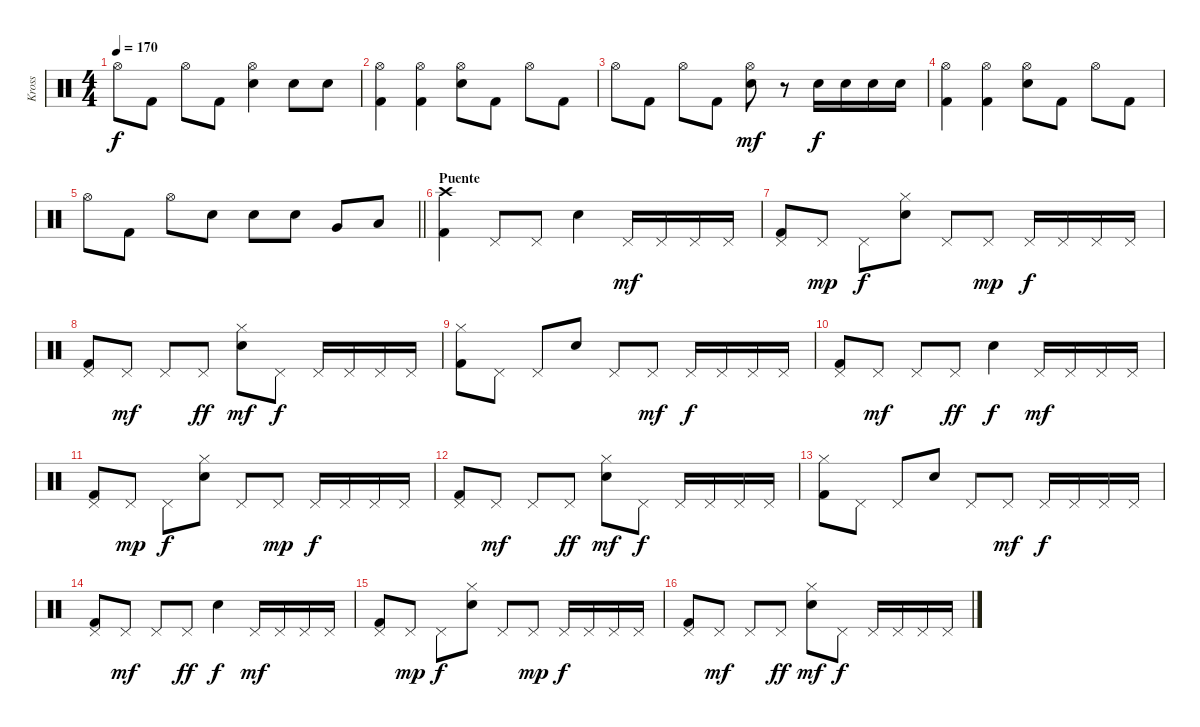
\track ("Kross" "Kross") {instrument percussion}
\staff {score}
\articulation defaults
\ts (4 4)
\tempo 170
\clef neutral
\ks c "Hi-Hat (open)".8{dy f} "Kick (hit) 2".8 "Hi-Hat (open)".8 "Kick (hit) 2".8
("Hi-Hat (open)" "Electric Snare (hit)").4 "Electric Snare (hit)".8 "Electric Snare (hit)".8 |
("Hi-Hat (open)" "Kick (hit) 2").4 ("Hi-Hat (open)" "Kick (hit) 2").4 ("Hi-Hat (open)" "Electric Snare (hit)").8 "Kick (hit) 2".8 "Hi-Hat (open)".8 "Kick (hit) 2".8 |
"Hi-Hat (open)".8 "Kick (hit) 2".8 "Hi-Hat (open)".8 "Kick (hit) 2".8 ("Hi-Hat (open)" "Electric Snare (hit)").8{dy mf} r.8 "Electric Snare (hit)".16{dy f} "Electric Snare (hit)".16 "Electric Snare (hit)".16 "Electric Snare (hit)".16 |
("Hi-Hat (open)" "Kick (hit) 2").4 ("Hi-Hat (open)" "Kick (hit) 2").4 ("Hi-Hat (open)" "Electric Snare (hit)").8 "Kick (hit) 2".8 "Hi-Hat (open)".8 "Kick (hit) 2".8 |
\barLineRight lightlight "Hi-Hat (open)".8 "Kick (hit) 2".8 "Hi-Hat (open)".8 "Electric Snare (hit)".8 "Electric Snare (hit)".8 "Electric Snare (hit)".8 "Very Low Tom (hit)".8 "Low Floor Tom (hit)".8
|
\section ("" "Puente")
("Crash high (hit)" "Kick (hit) 2").4 "Pedal Hi-Hat (hit)".8 "Pedal Hi-Hat (hit)".8 "Electric Snare (hit)".4 "Pedal Hi-Hat (hit)".16{dy mf} "Pedal Hi-Hat (hit)".16 "Pedal Hi-Hat (hit)".16 "Pedal Hi-Hat (hit)".16 |
("Pedal Hi-Hat (hit)" "Kick (hit) 2").8 "Pedal Hi-Hat (hit)".8{dy mp} "Pedal Hi-Hat (hit)".8{dy f} ("Hi-Hat (closed)" "Electric Snare (hit)").8 "Pedal Hi-Hat (hit)".8 "Pedal Hi-Hat (hit)".8{dy mp} "Pedal Hi-Hat (hit)".16{dy f} "Pedal Hi-Hat (hit)".16 "Pedal Hi-Hat (hit)".16 "Pedal Hi-Hat (hit)".16 |
("Pedal Hi-Hat (hit)" "Kick (hit) 2").8 "Pedal Hi-Hat (hit)".8{dy mf} "Pedal Hi-Hat (hit)".8 "Pedal Hi-Hat (hit)".8{dy ff} ("Hi-Hat (closed)" "Electric Snare (hit)").8{dy mf} "Pedal Hi-Hat (hit)".8{dy f} "Pedal Hi-Hat (hit)".16 "Pedal Hi-Hat (hit)".16 "Pedal Hi-Hat (hit)".16 "Pedal Hi-Hat (hit)".16 |
("Hi-Hat (closed)" "Kick (hit) 2").8 "Pedal Hi-Hat (hit)".8 "Pedal Hi-Hat (hit)".8 "Electric Snare (hit)".8 "Pedal Hi-Hat (hit)".8 "Pedal Hi-Hat (hit)".8{dy mf} "Pedal Hi-Hat (hit)".16{dy f} "Pedal Hi-Hat (hit)".16 "Pedal Hi-Hat (hit)".16 "Pedal Hi-Hat (hit)".16 |
("Pedal Hi-Hat (hit)" "Kick (hit) 2").8 "Pedal Hi-Hat (hit)".8{dy mf} "Pedal Hi-Hat (hit)".8 "Pedal Hi-Hat (hit)".8{dy ff} "Electric Snare (hit)".4{dy f} "Pedal Hi-Hat (hit)".16{dy mf} "Pedal Hi-Hat (hit)".16 "Pedal Hi-Hat (hit)".16 "Pedal Hi-Hat (hit)".16 |
("Pedal Hi-Hat (hit)" "Kick (hit) 2").8 "Pedal Hi-Hat (hit)".8{dy mp} "Pedal Hi-Hat (hit)".8{dy f} ("Hi-Hat (closed)" "Electric Snare (hit)").8 "Pedal Hi-Hat (hit)".8 "Pedal Hi-Hat (hit)".8{dy mp} "Pedal Hi-Hat (hit)".16{dy f} "Pedal Hi-Hat (hit)".16 "Pedal Hi-Hat (hit)".16 "Pedal Hi-Hat (hit)".16 |
("Pedal Hi-Hat (hit)" "Kick (hit) 2").8 "Pedal Hi-Hat (hit)".8{dy mf} "Pedal Hi-Hat (hit)".8 "Pedal Hi-Hat (hit)".8{dy ff} ("Hi-Hat (closed)" "Electric Snare (hit)").8{dy mf} "Pedal Hi-Hat (hit)".8{dy f} "Pedal Hi-Hat (hit)".16 "Pedal Hi-Hat (hit)".16 "Pedal Hi-Hat (hit)".16 "Pedal Hi-Hat (hit)".16 |
("Hi-Hat (closed)" "Kick (hit) 2").8 "Pedal Hi-Hat (hit)".8 "Pedal Hi-Hat (hit)".8 "Electric Snare (hit)".8 "Pedal Hi-Hat (hit)".8 "Pedal Hi-Hat (hit)".8{dy mf} "Pedal Hi-Hat (hit)".16{dy f} "Pedal Hi-Hat (hit)".16 "Pedal Hi-Hat (hit)".16 "Pedal Hi-Hat (hit)".16 |
("Pedal Hi-Hat (hit)" "Kick (hit) 2").8 "Pedal Hi-Hat (hit)".8{dy mf} "Pedal Hi-Hat (hit)".8 "Pedal Hi-Hat (hit)".8{dy ff} "Electric Snare (hit)".4{dy f} "Pedal Hi-Hat (hit)".16{dy mf} "Pedal Hi-Hat (hit)".16 "Pedal Hi-Hat (hit)".16 "Pedal Hi-Hat (hit)".16 |
("Pedal Hi-Hat (hit)" "Kick (hit) 2").8 "Pedal Hi-Hat (hit)".8{dy mp} "Pedal Hi-Hat (hit)".8{dy f} ("Hi-Hat (closed)" "Electric Snare (hit)").8 "Pedal Hi-Hat (hit)".8 "Pedal Hi-Hat (hit)".8{dy mp} "Pedal Hi-Hat (hit)".16{dy f} "Pedal Hi-Hat (hit)".16 "Pedal Hi-Hat (hit)".16 "Pedal Hi-Hat (hit)".16 |
("Pedal Hi-Hat (hit)" "Kick (hit) 2").8 "Pedal Hi-Hat (hit)".8{dy mf} "Pedal Hi-Hat (hit)".8 "Pedal Hi-Hat (hit)".8{dy ff} ("Hi-Hat (closed)" "Electric Snare (hit)").8{dy mf} "Pedal Hi-Hat (hit)".8{dy f} "Pedal Hi-Hat (hit)".16 "Pedal Hi-Hat (hit)".16 "Pedal Hi-Hat (hit)".16 "Pedal Hi-Hat (hit)".16
